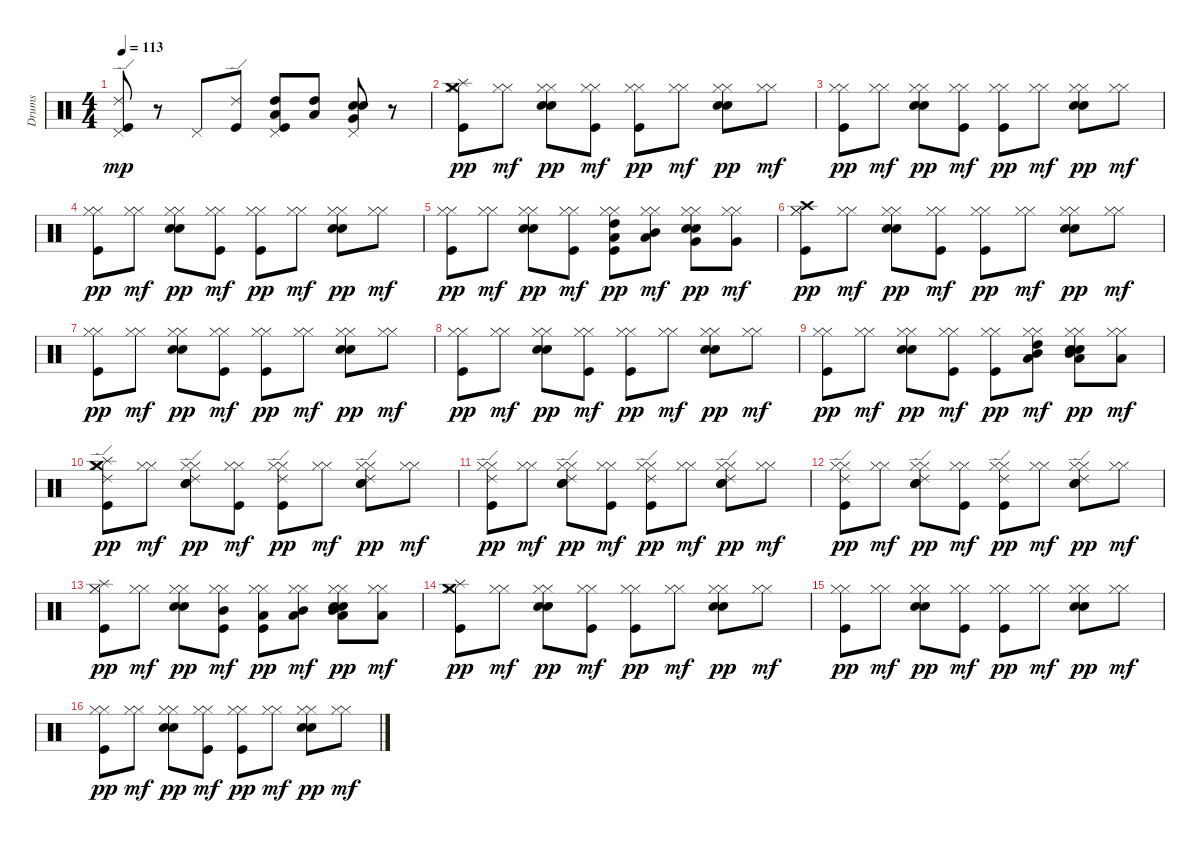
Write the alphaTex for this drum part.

\track ("Drums" "Drums") {instrument percussion}
\staff {score}
\articulation defaults
\ts (4 4)
\tempo 113
\clef neutral
\ks c
("Ride (edge) 2" "Kick (hit)" "Pedal Hi-Hat (hit)").8{dy mp} r.8 "Pedal Hi-Hat (hit)".8 ("Ride (edge) 2" "Kick (hit)").8 ("Low Tom (hit)" "Kick (hit)" "Pedal Hi-Hat (hit)" "High Tom (hit)").8 ("Low Tom (hit)" "High Tom (hit)").8 ("Very Low Tom (hit)" "Snare (hit) 2" "Electric Snare (hit)" "Pedal Hi-Hat (hit)").8 r.8 |
("Splash (hit)" "Crash medium (hit)" "Kick (hit)" "Hi-Hat (closed)" "Hi-Hat (closed)").8{dy pp} ("Hi-Hat (closed)" "Hi-Hat (closed)").8{dy mf} ("Snare (hit) 2" "Electric Snare (hit)" "Hi-Hat (closed)" "Hi-Hat (closed)").8{dy pp} ("Kick (hit)" "Hi-Hat (closed)" "Hi-Hat (closed)").8{dy mf} ("Kick (hit)" "Hi-Hat (closed)" "Hi-Hat (closed)").8{dy pp} ("Hi-Hat (closed)" "Hi-Hat (closed)").8{dy mf} ("Snare (hit) 2" "Electric Snare (hit)" "Hi-Hat (closed)" "Hi-Hat (closed)").8{dy pp} ("Hi-Hat (closed)" "Hi-Hat (closed)").8{dy mf} |
("Kick (hit)" "Hi-Hat (closed)" "Hi-Hat (closed)").8{dy pp} ("Hi-Hat (closed)" "Hi-Hat (closed)").8{dy mf} ("Snare (hit) 2" "Electric Snare (hit)" "Hi-Hat (closed)" "Hi-Hat (closed)").8{dy pp} ("Kick (hit)" "Hi-Hat (closed)" "Hi-Hat (closed)").8{dy mf} ("Kick (hit)" "Hi-Hat (closed)" "Hi-Hat (closed)").8{dy pp} ("Hi-Hat (closed)" "Hi-Hat (closed)").8{dy mf} ("Snare (hit) 2" "Electric Snare (hit)" "Hi-Hat (closed)" "Hi-Hat (closed)").8{dy pp} ("Hi-Hat (closed)" "Hi-Hat (closed)").8{dy mf} |
("Kick (hit)" "Hi-Hat (closed)" "Hi-Hat (closed)").8{dy pp} ("Hi-Hat (closed)" "Hi-Hat (closed)").8{dy mf} ("Snare (hit) 2" "Electric Snare (hit)" "Hi-Hat (closed)" "Hi-Hat (closed)").8{dy pp} ("Kick (hit)" "Hi-Hat (closed)" "Hi-Hat (closed)").8{dy mf} ("Kick (hit)" "Hi-Hat (closed)" "Hi-Hat (closed)").8{dy pp} ("Hi-Hat (closed)" "Hi-Hat (closed)").8{dy mf} ("Snare (hit) 2" "Electric Snare (hit)" "Hi-Hat (closed)" "Hi-Hat (closed)").8{dy pp} ("Hi-Hat (closed)" "Hi-Hat (closed)").8{dy mf} |
("Kick (hit)" "Hi-Hat (closed)" "Hi-Hat (closed)").8{dy pp} ("Hi-Hat (closed)" "Hi-Hat (closed)").8{dy mf} ("Snare (hit) 2" "Electric Snare (hit)" "Hi-Hat (closed)" "Hi-Hat (closed)").8{dy pp} ("Kick (hit)" "Hi-Hat (closed)" "Hi-Hat (closed)").8{dy mf} ("Low Tom (hit)" "Kick (hit)" "Hi-Hat (closed)" "High Tom (hit)" "Hi-Hat (closed)").8{dy pp} ("Low Tom (hit)" "Hi-Hat (closed)" "Mid Tom (hit)" "Hi-Hat (closed)").8{dy mf} ("Very Low Tom (hit)" "Snare (hit) 2" "Electric Snare (hit)" "Hi-Hat (closed)" "Hi-Hat (closed)").8{dy pp} ("Very Low Tom (hit)" "Hi-Hat (closed)" "Hi-Hat (closed)").8{dy mf} |
("Crash high (hit)" "Kick (hit)" "Hi-Hat (closed)" "Hi-Hat (closed)").8{dy pp} ("Hi-Hat (closed)" "Hi-Hat (closed)").8{dy mf} ("Snare (hit) 2" "Electric Snare (hit)" "Hi-Hat (closed)" "Hi-Hat (closed)").8{dy pp} ("Kick (hit)" "Hi-Hat (closed)" "Hi-Hat (closed)").8{dy mf} ("Kick (hit)" "Hi-Hat (closed)" "Hi-Hat (closed)").8{dy pp} ("Hi-Hat (closed)" "Hi-Hat (closed)").8{dy mf} ("Snare (hit) 2" "Electric Snare (hit)" "Hi-Hat (closed)" "Hi-Hat (closed)").8{dy pp} ("Hi-Hat (closed)" "Hi-Hat (closed)").8{dy mf} |
("Kick (hit)" "Hi-Hat (closed)" "Hi-Hat (closed)").8{dy pp} ("Hi-Hat (closed)" "Hi-Hat (closed)").8{dy mf} ("Snare (hit) 2" "Electric Snare (hit)" "Hi-Hat (closed)" "Hi-Hat (closed)").8{dy pp} ("Kick (hit)" "Hi-Hat (closed)" "Hi-Hat (closed)").8{dy mf} ("Kick (hit)" "Hi-Hat (closed)" "Hi-Hat (closed)").8{dy pp} ("Hi-Hat (closed)" "Hi-Hat (closed)").8{dy mf} ("Snare (hit) 2" "Electric Snare (hit)" "Hi-Hat (closed)" "Hi-Hat (closed)").8{dy pp} ("Hi-Hat (closed)" "Hi-Hat (closed)").8{dy mf} |
("Kick (hit)" "Hi-Hat (closed)" "Hi-Hat (closed)").8{dy pp} ("Hi-Hat (closed)" "Hi-Hat (closed)").8{dy mf} ("Snare (hit) 2" "Electric Snare (hit)" "Hi-Hat (closed)" "Hi-Hat (closed)").8{dy pp} ("Kick (hit)" "Hi-Hat (closed)" "Hi-Hat (closed)").8{dy mf} ("Kick (hit)" "Hi-Hat (closed)" "Hi-Hat (closed)").8{dy pp} ("Hi-Hat (closed)" "Hi-Hat (closed)").8{dy mf} ("Snare (hit) 2" "Electric Snare (hit)" "Hi-Hat (closed)" "Hi-Hat (closed)").8{dy pp} ("Hi-Hat (closed)" "Hi-Hat (closed)").8{dy mf} |
("Kick (hit)" "Hi-Hat (closed)" "Hi-Hat (closed)").8{dy pp} ("Hi-Hat (closed)" "Hi-Hat (closed)").8{dy mf} ("Snare (hit) 2" "Electric Snare (hit)" "Hi-Hat (closed)" "Hi-Hat (closed)").8{dy pp} ("Kick (hit)" "Hi-Hat (closed)" "Hi-Hat (closed)").8{dy mf} ("Kick (hit)" "Hi-Hat (closed)" "Hi-Hat (closed)").8{dy pp} ("Low Tom (hit)" "Mid Tom (hit)" "High Tom (hit)" "Hi-Hat (closed)" "Hi-Hat (closed)").8{dy mf} ("Mid Tom (hit)" "Low Tom (hit)" "Snare (hit) 2" "Electric Snare (hit)" "Hi-Hat (closed)" "Hi-Hat (closed)").8{dy pp} ("Low Tom (hit)" "Hi-Hat (closed)" "Hi-Hat (closed)").8{dy mf} |
("Crash medium (hit)" "Ride (edge) 2" "Kick (hit)" "Hi-Hat (closed)" "Splash (hit)" "Hi-Hat (closed)").8{dy pp} ("Hi-Hat (closed)" "Hi-Hat (closed)").8{dy mf} ("Ride (edge) 2" "Snare (hit) 2" "Electric Snare (hit)" "Hi-Hat (closed)" "Hi-Hat (closed)").8{dy pp} ("Kick (hit)" "Hi-Hat (closed)" "Hi-Hat (closed)").8{dy mf} ("Ride (edge) 2" "Kick (hit)" "Hi-Hat (closed)" "Hi-Hat (closed)").8{dy pp} ("Hi-Hat (closed)" "Hi-Hat (closed)").8{dy mf} ("Ride (edge) 2" "Snare (hit) 2" "Electric Snare (hit)" "Hi-Hat (closed)" "Hi-Hat (closed)").8{dy pp} ("Hi-Hat (closed)" "Hi-Hat (closed)").8{dy mf} |
("Ride (edge) 2" "Kick (hit)" "Hi-Hat (closed)" "Hi-Hat (closed)").8{dy pp} ("Hi-Hat (closed)" "Hi-Hat (closed)").8{dy mf} ("Ride (edge) 2" "Snare (hit) 2" "Electric Snare (hit)" "Hi-Hat (closed)" "Hi-Hat (closed)").8{dy pp} ("Kick (hit)" "Hi-Hat (closed)" "Hi-Hat (closed)").8{dy mf} ("Ride (edge) 2" "Kick (hit)" "Hi-Hat (closed)" "Hi-Hat (closed)").8{dy pp} ("Hi-Hat (closed)" "Hi-Hat (closed)").8{dy mf} ("Ride (edge) 2" "Snare (hit) 2" "Electric Snare (hit)" "Hi-Hat (closed)" "Hi-Hat (closed)").8{dy pp} ("Hi-Hat (closed)" "Hi-Hat (closed)").8{dy mf} |
("Ride (edge) 2" "Kick (hit)" "Hi-Hat (closed)" "Hi-Hat (closed)").8{dy pp} ("Hi-Hat (closed)" "Hi-Hat (closed)").8{dy mf} ("Ride (edge) 2" "Snare (hit) 2" "Electric Snare (hit)" "Hi-Hat (closed)" "Hi-Hat (closed)").8{dy pp} ("Kick (hit)" "Hi-Hat (closed)" "Hi-Hat (closed)").8{dy mf} ("Ride (edge) 2" "Kick (hit)" "Hi-Hat (closed)" "Hi-Hat (closed)").8{dy pp} ("Hi-Hat (closed)" "Hi-Hat (closed)").8{dy mf} ("Ride (edge) 2" "Snare (hit) 2" "Electric Snare (hit)" "Hi-Hat (closed)" "Hi-Hat (closed)").8{dy pp} ("Hi-Hat (closed)" "Hi-Hat (closed)").8{dy mf} |
("Splash (hit)" "Kick (hit)" "Hi-Hat (closed)" "Hi-Hat (closed)").8{dy pp} ("Hi-Hat (closed)" "Hi-Hat (closed)").8{dy mf} ("Snare (hit) 2" "Electric Snare (hit)" "Hi-Hat (closed)" "Hi-Hat (closed)").8{dy pp} ("Mid Tom (hit)" "Kick (hit)" "Hi-Hat (closed)" "Hi-Hat (closed)").8{dy mf} ("Low Tom (hit)" "Kick (hit)" "Hi-Hat (closed)" "Hi-Hat (closed)").8{dy pp} ("Mid Tom (hit)" "Low Tom (hit)" "Hi-Hat (closed)" "Hi-Hat (closed)").8{dy mf} ("Mid Tom (hit)" "Low Tom (hit)" "Snare (hit) 2" "Electric Snare (hit)" "Hi-Hat (closed)" "Hi-Hat (closed)").8{dy pp} ("Low Tom (hit)" "Hi-Hat (closed)" "Hi-Hat (closed)").8{dy mf} |
("Splash (hit)" "Crash medium (hit)" "Kick (hit)" "Hi-Hat (closed)" "Hi-Hat (closed)").8{dy pp} ("Hi-Hat (closed)" "Hi-Hat (closed)").8{dy mf} ("Snare (hit) 2" "Electric Snare (hit)" "Hi-Hat (closed)" "Hi-Hat (closed)").8{dy pp} ("Kick (hit)" "Hi-Hat (closed)" "Hi-Hat (closed)").8{dy mf} ("Kick (hit)" "Hi-Hat (closed)" "Hi-Hat (closed)").8{dy pp} ("Hi-Hat (closed)" "Hi-Hat (closed)").8{dy mf} ("Snare (hit) 2" "Electric Snare (hit)" "Hi-Hat (closed)" "Hi-Hat (closed)").8{dy pp} ("Hi-Hat (closed)" "Hi-Hat (closed)").8{dy mf} |
("Kick (hit)" "Hi-Hat (closed)" "Hi-Hat (closed)").8{dy pp} ("Hi-Hat (closed)" "Hi-Hat (closed)").8{dy mf} ("Snare (hit) 2" "Electric Snare (hit)" "Hi-Hat (closed)" "Hi-Hat (closed)").8{dy pp} ("Kick (hit)" "Hi-Hat (closed)" "Hi-Hat (closed)").8{dy mf} ("Kick (hit)" "Hi-Hat (closed)" "Hi-Hat (closed)").8{dy pp} ("Hi-Hat (closed)" "Hi-Hat (closed)").8{dy mf} ("Snare (hit) 2" "Electric Snare (hit)" "Hi-Hat (closed)" "Hi-Hat (closed)").8{dy pp} ("Hi-Hat (closed)" "Hi-Hat (closed)").8{dy mf} |
("Kick (hit)" "Hi-Hat (closed)" "Hi-Hat (closed)").8{dy pp} ("Hi-Hat (closed)" "Hi-Hat (closed)").8{dy mf} ("Snare (hit) 2" "Electric Snare (hit)" "Hi-Hat (closed)" "Hi-Hat (closed)").8{dy pp} ("Kick (hit)" "Hi-Hat (closed)" "Hi-Hat (closed)").8{dy mf} ("Kick (hit)" "Hi-Hat (closed)" "Hi-Hat (closed)").8{dy pp} ("Hi-Hat (closed)" "Hi-Hat (closed)").8{dy mf} ("Snare (hit) 2" "Electric Snare (hit)" "Hi-Hat (closed)" "Hi-Hat (closed)").8{dy pp} ("Hi-Hat (closed)" "Hi-Hat (closed)").8{dy mf}
